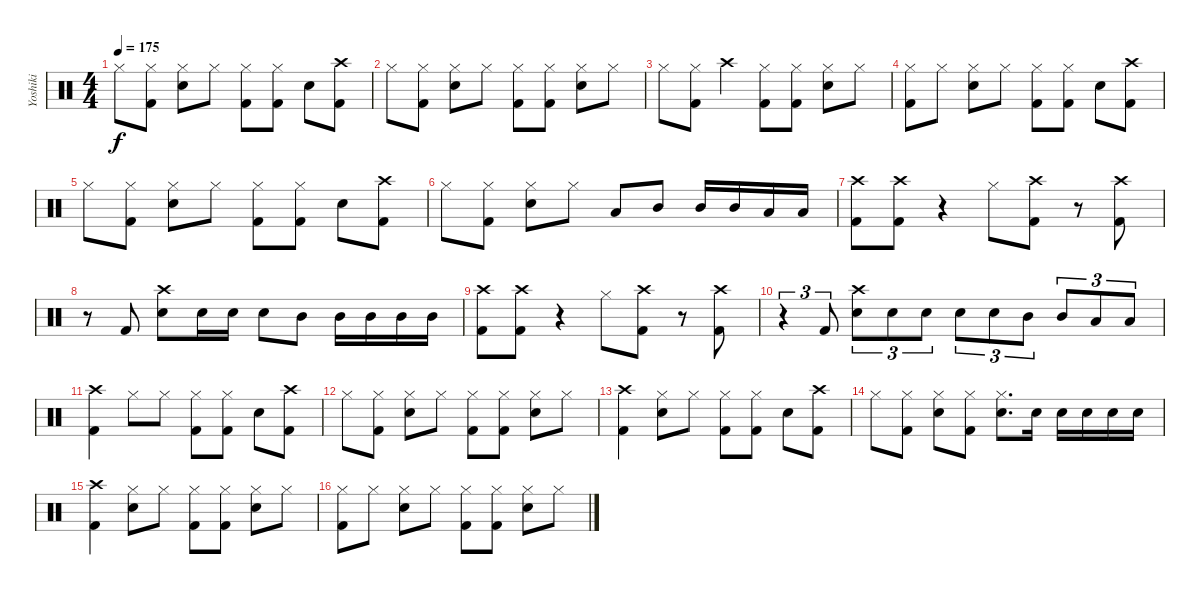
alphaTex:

\track ("Yoshiki" "Yoshiki") {instrument percussion}
\staff {score}
\articulation defaults
\ts (4 4)
\tempo 175
\clef neutral
\ks c "Hi-Hat (closed)".8{dy f}
("Hi-Hat (closed)" "Kick (hit) 2").8 ("Hi-Hat (closed)" "Electric Snare (hit)").8 "Hi-Hat (closed)".8 ("Hi-Hat (closed)" "Kick (hit) 2").8 ("Hi-Hat (closed)" "Kick (hit) 2").8 "Electric Snare (hit)".8 ("Crash high (hit)" "Kick (hit) 2").8 |
"Hi-Hat (closed)".8 ("Hi-Hat (closed)" "Kick (hit) 2").8 ("Hi-Hat (closed)" "Electric Snare (hit)").8 "Hi-Hat (closed)".8 ("Hi-Hat (closed)" "Kick (hit) 2").8 ("Hi-Hat (closed)" "Kick (hit) 2").8 ("Hi-Hat (closed)" "Electric Snare (hit)").8 "Hi-Hat (closed)".8 |
"Hi-Hat (closed)".8 ("Hi-Hat (closed)" "Kick (hit) 2").8 "Crash high (hit)".4 ("Hi-Hat (closed)" "Kick (hit) 2").8 ("Hi-Hat (closed)" "Kick (hit) 2").8 ("Hi-Hat (closed)" "Electric Snare (hit)").8 "Hi-Hat (closed)".8 |
("Hi-Hat (closed)" "Kick (hit) 2").8 "Hi-Hat (closed)".8 ("Hi-Hat (closed)" "Electric Snare (hit)").8 "Hi-Hat (closed)".8 ("Hi-Hat (closed)" "Kick (hit) 2").8 ("Hi-Hat (closed)" "Kick (hit) 2").8 "Electric Snare (hit)".8 ("Crash high (hit)" "Kick (hit) 2").8 |
"Hi-Hat (closed)".8 ("Hi-Hat (closed)" "Kick (hit) 2").8 ("Hi-Hat (closed)" "Electric Snare (hit)").8 "Hi-Hat (closed)".8 ("Hi-Hat (closed)" "Kick (hit) 2").8 ("Hi-Hat (closed)" "Kick (hit) 2").8 "Electric Snare (hit)".8 ("Crash high (hit)" "Kick (hit) 2").8 |
"Hi-Hat (closed)".8 ("Hi-Hat (closed)" "Kick (hit) 2").8 ("Hi-Hat (closed)" "Electric Snare (hit)").8 "Hi-Hat (closed)".8 "Low Tom (hit)".8 "Mid Tom (hit)".8 "Mid Tom (hit)".16 "Mid Tom (hit)".16 "Low Tom (hit)".16 "Low Tom (hit)".16 |
("Crash high (hit)" "Kick (hit) 2").8 ("Crash high (hit)" "Kick (hit) 2").8 r.4 "Hi-Hat (closed)".8 ("Crash high (hit)" "Kick (hit) 2").8 r.8 ("Crash high (hit)" "Kick (hit) 2").8 |
r.8 "Kick (hit) 2".8 ("Crash high (hit)" "Electric Snare (hit)").8 "Electric Snare (hit)".16 "Electric Snare (hit)".16 "Electric Snare (hit)".8 "Mid Tom (hit)".8 "Mid Tom (hit)".16 "Mid Tom (hit)".16 "Mid Tom (hit)".16 "Mid Tom (hit)".16 |
("Crash high (hit)" "Kick (hit) 2").8 ("Crash high (hit)" "Kick (hit) 2").8 r.4 "Hi-Hat (closed)".8 ("Crash high (hit)" "Kick (hit) 2").8 r.8 ("Crash high (hit)" "Kick (hit) 2").8 |
r.4{tu (3 2)} "Kick (hit) 2".8{tu (3 2)} ("Crash high (hit)" "Electric Snare (hit)").8{tu (3 2)} "Electric Snare (hit)".8{tu (3 2)} "Electric Snare (hit)".8{tu (3 2)} "Electric Snare (hit)".8{tu (3 2)} "Electric Snare (hit)".8{tu (3 2)} "Mid Tom (hit)".8{tu (3 2)} "Mid Tom (hit)".8{tu (3 2)} "Low Tom (hit)".8{tu (3 2)} "Low Tom (hit)".8{tu (3 2)} |
("Crash high (hit)" "Kick (hit) 2").4 "Hi-Hat (closed)".8 "Hi-Hat (closed)".8 ("Hi-Hat (closed)" "Kick (hit) 2").8 ("Hi-Hat (closed)" "Kick (hit) 2").8 "Electric Snare (hit)".8 ("Crash high (hit)" "Kick (hit) 2").8 |
"Hi-Hat (closed)".8 ("Hi-Hat (closed)" "Kick (hit) 2").8 ("Hi-Hat (closed)" "Electric Snare (hit)").8 "Hi-Hat (closed)".8 ("Hi-Hat (closed)" "Kick (hit) 2").8 ("Hi-Hat (closed)" "Kick (hit) 2").8 ("Hi-Hat (closed)" "Electric Snare (hit)").8 "Hi-Hat (closed)".8 |
("Crash high (hit)" "Kick (hit) 2").4 ("Hi-Hat (closed)" "Electric Snare (hit)").8 "Hi-Hat (closed)".8 ("Hi-Hat (closed)" "Kick (hit) 2").8 ("Hi-Hat (closed)" "Kick (hit) 2").8 "Electric Snare (hit)".8 ("Crash high (hit)" "Kick (hit) 2").8 |
"Hi-Hat (closed)".8 ("Hi-Hat (closed)" "Kick (hit) 2").8 ("Hi-Hat (closed)" "Electric Snare (hit)").8 ("Hi-Hat (closed)" "Kick (hit) 2").8 ("Hi-Hat (closed)" "Electric Snare (hit)").8{d} "Electric Snare (hit)".16 "Electric Snare (hit)".16 "Electric Snare (hit)".16 "Electric Snare (hit)".16 "Electric Snare (hit)".16 |
("Crash high (hit)" "Kick (hit) 2").4 ("Hi-Hat (closed)" "Electric Snare (hit)").8 "Hi-Hat (closed)".8 ("Hi-Hat (closed)" "Kick (hit) 2").8 ("Hi-Hat (closed)" "Kick (hit) 2").8 ("Hi-Hat (closed)" "Electric Snare (hit)").8 "Hi-Hat (closed)".8 |
("Hi-Hat (closed)" "Kick (hit) 2").8 "Hi-Hat (closed)".8 ("Hi-Hat (closed)" "Electric Snare (hit)").8 "Hi-Hat (closed)".8 ("Hi-Hat (closed)" "Kick (hit) 2").8 ("Hi-Hat (closed)" "Kick (hit) 2").8 ("Hi-Hat (closed)" "Electric Snare (hit)").8 "Hi-Hat (closed)".8
